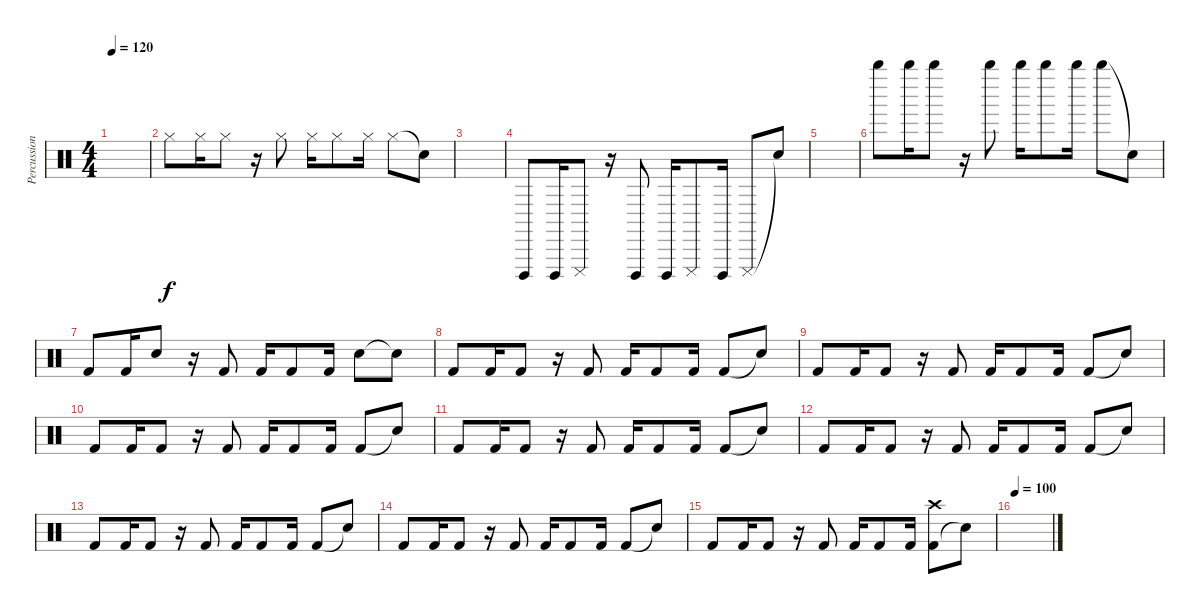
\track ("Percussion" "Percussion") {instrument percussion}
\staff {score}
\articulation defaults
\ts (4 4)
\tempo 120
\clef neutral
\ks c
|
"Hi-Hat (closed)".8 "Hi-Hat (closed)".16 "Hi-Hat (closed)".8 r.16 "Hi-Hat (closed)".8 "Hi-Hat (closed)".16 "Hi-Hat (closed)".8 "Hi-Hat (closed)".16 "Hi-Hat (closed)".8 "Snare (hit)"{t}.8 |
|
"Cuica (open)".8 "Cuica (open)".16 "Cuica (mute)".8 r.16 "Cuica (open)".8 "Cuica (open)".16 "Cuica (mute)".8 "Cuica (open)".16 "Cuica (mute)".8 "Snare (hit)"{t}.8 |
|
"Whistle high (hit)".8 "Whistle high (hit)".16 "Whistle high (hit)".8 r.16 "Whistle high (hit)".8 "Whistle high (hit)".16 "Whistle high (hit)".8 "Whistle high (hit)".16 "Whistle high (hit)".8 "Snare (hit)"{t}.8 |
"Kick (hit) 2".8 "Kick (hit) 2".16 "Electric Snare (hit)".8 r.16 "Kick (hit) 2".8 "Kick (hit) 2".16 "Kick (hit) 2".8 "Kick (hit) 2".16 "Electric Snare (hit)".8 "Snare (hit)"{t}.8 |
"Kick (hit) 2".8 "Kick (hit) 2".16 "Kick (hit) 2".8 r.16 "Kick (hit) 2".8 "Kick (hit) 2".16 "Kick (hit) 2".8 "Kick (hit) 2".16 "Kick (hit) 2".8 "Snare (hit)"{t}.8 |
"Kick (hit) 2".8 "Kick (hit) 2".16 "Kick (hit) 2".8 r.16 "Kick (hit) 2".8 "Kick (hit) 2".16 "Kick (hit) 2".8 "Kick (hit) 2".16 "Kick (hit) 2".8 "Snare (hit)"{t}.8 |
"Kick (hit) 2".8 "Kick (hit) 2".16 "Kick (hit) 2".8 r.16 "Kick (hit) 2".8 "Kick (hit) 2".16 "Kick (hit) 2".8 "Kick (hit) 2".16 "Kick (hit) 2".8 "Snare (hit)"{t}.8 |
"Kick (hit) 2".8 "Kick (hit) 2".16 "Kick (hit) 2".8 r.16 "Kick (hit) 2".8 "Kick (hit) 2".16 "Kick (hit) 2".8 "Kick (hit) 2".16 "Kick (hit) 2".8 "Snare (hit)"{t}.8 |
"Kick (hit) 2".8 "Kick (hit) 2".16 "Kick (hit) 2".8 r.16 "Kick (hit) 2".8 "Kick (hit) 2".16 "Kick (hit) 2".8 "Kick (hit) 2".16 "Kick (hit) 2".8 "Snare (hit)"{t}.8 |
"Kick (hit) 2".8 "Kick (hit) 2".16 "Kick (hit) 2".8 r.16 "Kick (hit) 2".8 "Kick (hit) 2".16 "Kick (hit) 2".8 "Kick (hit) 2".16 "Kick (hit) 2".8 "Snare (hit)"{t}.8 |
"Kick (hit) 2".8 "Kick (hit) 2".16 "Kick (hit) 2".8 r.16 "Kick (hit) 2".8 "Kick (hit) 2".16 "Kick (hit) 2".8 "Kick (hit) 2".16 "Kick (hit) 2".8 "Snare (hit)"{t}.8 |
"Kick (hit) 2".8 "Kick (hit) 2".16 "Kick (hit) 2".8 r.16 "Kick (hit) 2".8 "Kick (hit) 2".16 "Kick (hit) 2".8 "Kick (hit) 2".16 ("Kick (hit) 2" "Crash high (hit)").8 "Snare (hit)"{t}.8 |
\tempo 100
